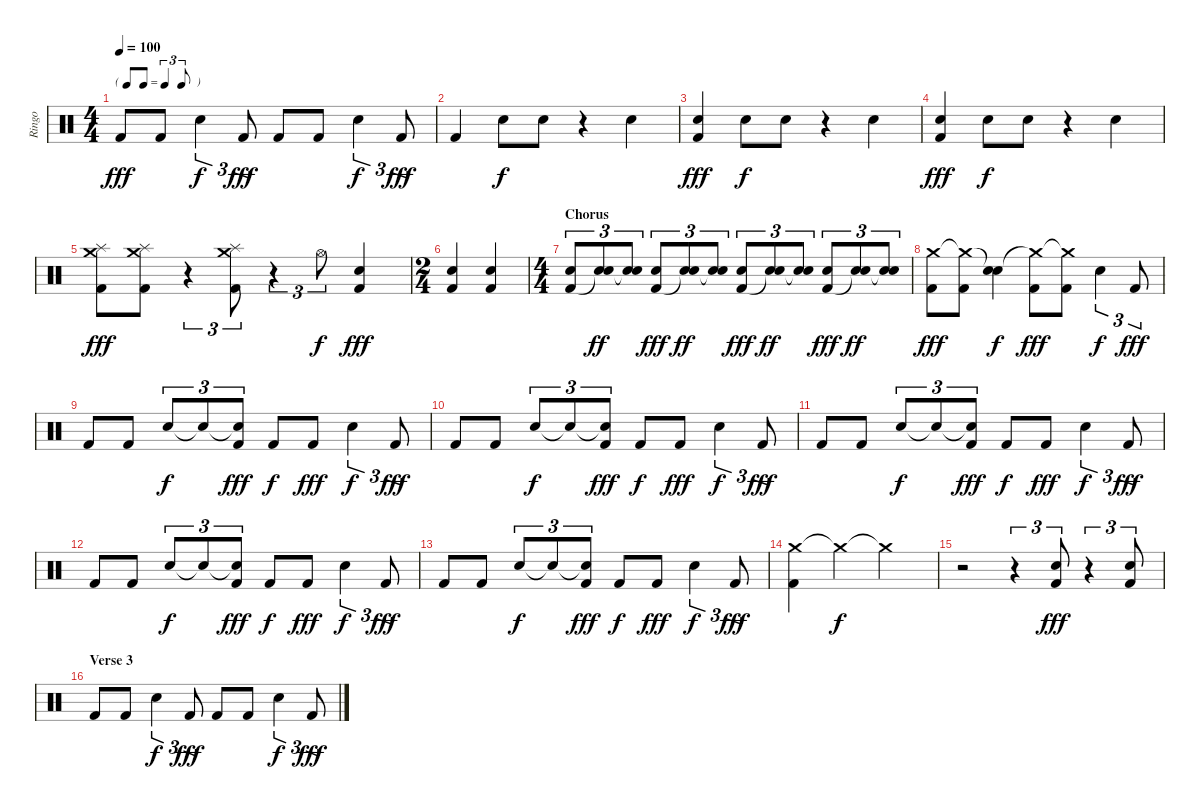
\track ("Ringo" "Ringo") {instrument percussion}
\staff {score}
\articulation defaults
\ts (4 4)
\tf triplet8th
\tempo 100
\clef neutral
\ks c "Kick (hit) 2".8{dy fff} "Kick (hit) 2".8 "Snare (hit) 2".4{tu (3 2) dy f} "Kick (hit) 2".8{tu (3 2) dy fff} "Kick (hit) 2".8 "Kick (hit) 2".8 "Snare (hit) 2".4{tu (3 2) dy f} "Kick (hit) 2".8{tu (3 2) dy fff}
|
"Kick (hit) 2".4 "Snare (hit) 2".8{dy f} "Snare (hit) 2".8 r.4 "Snare (hit) 2".4 |
("Snare (hit) 2" "Kick (hit) 2").4{dy fff} "Snare (hit) 2".8{dy f} "Snare (hit) 2".8 r.4 "Snare (hit) 2".4 |
("Snare (hit) 2" "Kick (hit) 2").4{dy fff} "Snare (hit) 2".8{dy f} "Snare (hit) 2".8 r.4 "Snare (hit) 2".4 |
("Crash medium (hit)" "Splash (hit)" "Kick (hit) 2").8{dy fff} ("Crash medium (hit)" "Splash (hit)" "Kick (hit) 2").8 r.4{tu (3 2)} ("Crash medium (hit)" "Splash (hit)" "Kick (hit) 2").8{tu (3 2)} r.4{tu (3 2)} "Hi-Hat (open)".8{tu (3 2) dy f} ("Snare (hit) 2" "Kick (hit) 2").4{dy fff} |
\ts (2 4)
("Snare (hit) 2" "Kick (hit) 2").4 ("Snare (hit) 2" "Kick (hit) 2").4 |
\ts (4 4)
\section ("" "Chorus")
("Snare (hit) 2" "Kick (hit) 2").8{tu (3 2)} ("Snare (hit) 2" "Snare (hit)"{t}).8{tu (3 2) dy ff} ("Snare (hit) 2" "Snare (hit)"{t}).8{tu (3 2)} ("Snare (hit) 2" "Kick (hit) 2").8{tu (3 2) dy fff} ("Snare (hit) 2" "Snare (hit)"{t}).8{tu (3 2) dy ff} ("Snare (hit) 2" "Snare (hit)"{t}).8{tu (3 2)} ("Snare (hit) 2" "Kick (hit) 2").8{tu (3 2) dy fff} ("Snare (hit) 2" "Snare (hit)"{t}).8{tu (3 2) dy ff} ("Snare (hit) 2" "Snare (hit)"{t}).8{tu (3 2)} ("Snare (hit) 2" "Kick (hit) 2").8{tu (3 2) dy fff} ("Snare (hit) 2" "Snare (hit)"{t}).8{tu (3 2) dy ff} ("Snare (hit) 2" "Snare (hit)"{t}).8{tu (3 2)} |
("Crash medium (hit)" "Kick (hit) 2").8{dy fff} ("Crash medium (hit)"{t} "Kick (hit) 2").8 ("Snare (hit)"{t} "Snare (hit) 2").4{dy f} ("Crash medium (hit)"{t} "Kick (hit) 2").8{dy fff} ("Crash medium (hit)"{t} "Kick (hit) 2").8 "Snare (hit) 2".4{tu (3 2) dy f} "Kick (hit) 2".8{tu (3 2) dy fff} |
"Kick (hit) 2".8 "Kick (hit) 2".8 "Snare (hit) 2".8{tu (3 2) dy f} "Snare (hit)"{t}.8{tu (3 2)} ("Snare (hit)"{t} "Kick (hit) 2").8{tu (3 2) dy fff} "Kick (hit) 2".8{dy f} "Kick (hit) 2".8{dy fff} "Snare (hit) 2".4{tu (3 2) dy f} "Kick (hit) 2".8{tu (3 2) dy fff} |
"Kick (hit) 2".8 "Kick (hit) 2".8 "Snare (hit) 2".8{tu (3 2) dy f} "Snare (hit)"{t}.8{tu (3 2)} ("Snare (hit)"{t} "Kick (hit) 2").8{tu (3 2) dy fff} "Kick (hit) 2".8{dy f} "Kick (hit) 2".8{dy fff} "Snare (hit) 2".4{tu (3 2) dy f} "Kick (hit) 2".8{tu (3 2) dy fff} |
"Kick (hit) 2".8 "Kick (hit) 2".8 "Snare (hit) 2".8{tu (3 2) dy f} "Snare (hit)"{t}.8{tu (3 2)} ("Snare (hit)"{t} "Kick (hit) 2").8{tu (3 2) dy fff} "Kick (hit) 2".8{dy f} "Kick (hit) 2".8{dy fff} "Snare (hit) 2".4{tu (3 2) dy f} "Kick (hit) 2".8{tu (3 2) dy fff} |
"Kick (hit) 2".8 "Kick (hit) 2".8 "Snare (hit) 2".8{tu (3 2) dy f} "Snare (hit)"{t}.8{tu (3 2)} ("Snare (hit)"{t} "Kick (hit) 2").8{tu (3 2) dy fff} "Kick (hit) 2".8{dy f} "Kick (hit) 2".8{dy fff} "Snare (hit) 2".4{tu (3 2) dy f} "Kick (hit) 2".8{tu (3 2) dy fff} |
"Kick (hit) 2".8 "Kick (hit) 2".8 "Snare (hit) 2".8{tu (3 2) dy f} "Snare (hit)"{t}.8{tu (3 2)} ("Snare (hit)"{t} "Kick (hit) 2").8{tu (3 2) dy fff} "Kick (hit) 2".8{dy f} "Kick (hit) 2".8{dy fff} "Snare (hit) 2".4{tu (3 2) dy f} "Kick (hit) 2".8{tu (3 2) dy fff} |
("Crash medium (hit)" "Kick (hit) 2").4 "Crash medium (hit)"{t}.4{dy f} "Crash medium (hit)"{t}.2 |
r.2 r.4{tu (3 2)} ("Snare (hit) 2" "Kick (hit) 2").8{tu (3 2) dy fff} r.4{tu (3 2)} ("Snare (hit) 2" "Kick (hit) 2").8{tu (3 2)} |
\section ("" "Verse 3")
"Kick (hit) 2".8 "Kick (hit) 2".8 "Snare (hit) 2".4{tu (3 2) dy f} "Kick (hit) 2".8{tu (3 2) dy fff} "Kick (hit) 2".8 "Kick (hit) 2".8 "Snare (hit) 2".4{tu (3 2) dy f} "Kick (hit) 2".8{tu (3 2) dy fff}
